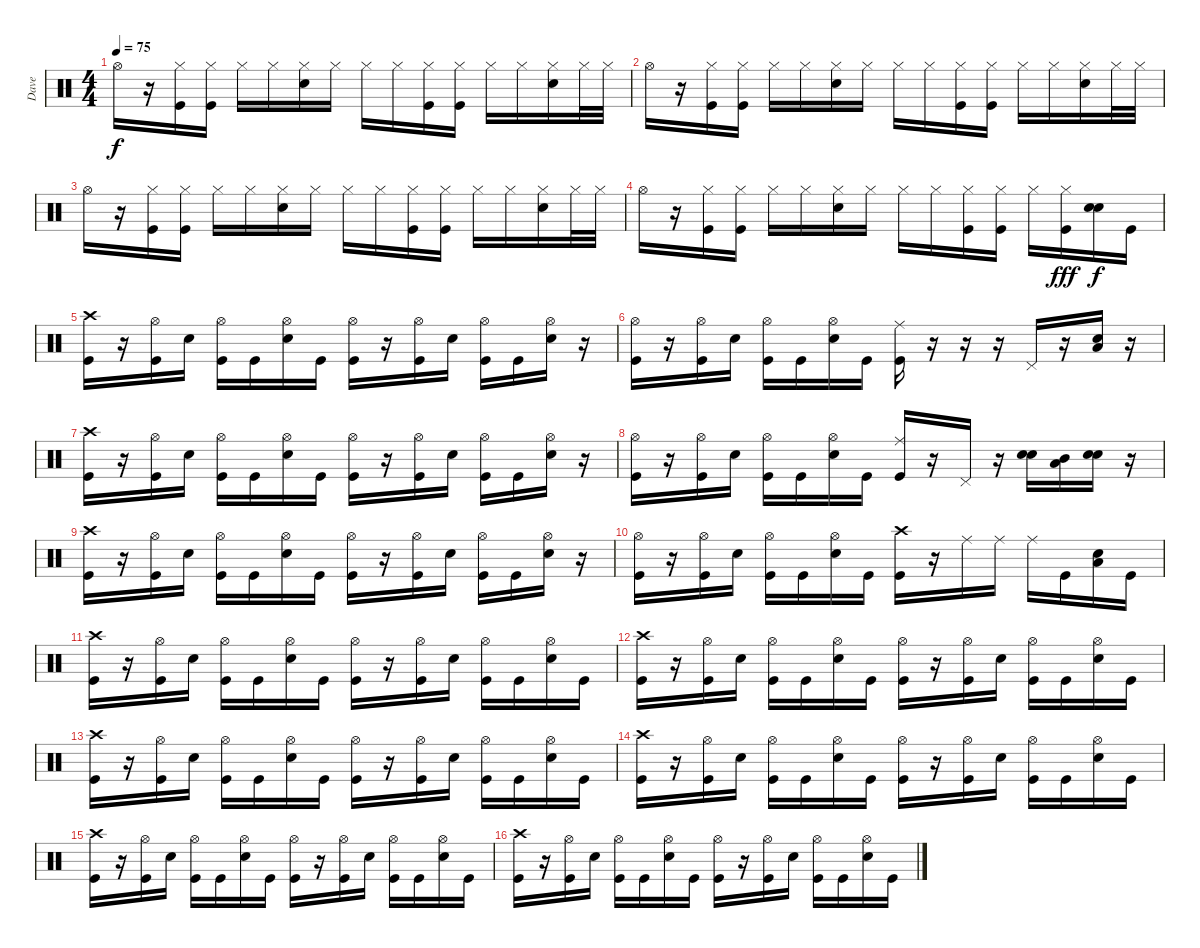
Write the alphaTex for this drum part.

\track ("Dave" "Dave") {instrument percussion}
\staff {score}
\articulation defaults
\ts (4 4)
\tempo 75
\clef neutral
\ks c "Hi-Hat (open)".16{dy f}
r.16 ("Hi-Hat (closed)" "Kick (hit)").16 ("Hi-Hat (closed)" "Kick (hit)").16 "Hi-Hat (closed)".16 "Hi-Hat (closed)".16 ("Hi-Hat (closed)" "Snare (hit) 2").16 "Hi-Hat (closed)".16 "Hi-Hat (closed)".16 "Hi-Hat (closed)".16 ("Hi-Hat (closed)" "Kick (hit)").16 ("Hi-Hat (closed)" "Kick (hit)").16 "Hi-Hat (closed)".16 "Hi-Hat (closed)".16 ("Hi-Hat (closed)" "Snare (hit) 2").16 "Hi-Hat (closed)".32 "Hi-Hat (closed)".32 |
"Hi-Hat (open)".16 r.16 ("Hi-Hat (closed)" "Kick (hit)").16 ("Hi-Hat (closed)" "Kick (hit)").16 "Hi-Hat (closed)".16 "Hi-Hat (closed)".16 ("Hi-Hat (closed)" "Snare (hit) 2").16 "Hi-Hat (closed)".16 "Hi-Hat (closed)".16 "Hi-Hat (closed)".16 ("Hi-Hat (closed)" "Kick (hit)").16 ("Hi-Hat (closed)" "Kick (hit)").16 "Hi-Hat (closed)".16 "Hi-Hat (closed)".16 ("Hi-Hat (closed)" "Snare (hit) 2").16 "Hi-Hat (closed)".32 "Hi-Hat (closed)".32 |
"Hi-Hat (open)".16 r.16 ("Hi-Hat (closed)" "Kick (hit)").16 ("Hi-Hat (closed)" "Kick (hit)").16 "Hi-Hat (closed)".16 "Hi-Hat (closed)".16 ("Hi-Hat (closed)" "Snare (hit) 2").16 "Hi-Hat (closed)".16 "Hi-Hat (closed)".16 "Hi-Hat (closed)".16 ("Hi-Hat (closed)" "Kick (hit)").16 ("Hi-Hat (closed)" "Kick (hit)").16 "Hi-Hat (closed)".16 "Hi-Hat (closed)".16 ("Hi-Hat (closed)" "Snare (hit) 2").16 "Hi-Hat (closed)".32 "Hi-Hat (closed)".32 |
"Hi-Hat (open)".16 r.16 ("Hi-Hat (closed)" "Kick (hit)").16 ("Hi-Hat (closed)" "Kick (hit)").16 "Hi-Hat (closed)".16 "Hi-Hat (closed)".16 ("Hi-Hat (closed)" "Snare (hit) 2").16 "Hi-Hat (closed)".16 "Hi-Hat (closed)".16 "Hi-Hat (closed)".16 ("Hi-Hat (closed)" "Kick (hit)").16 ("Hi-Hat (closed)" "Kick (hit)").16 "Hi-Hat (closed)".16 ("Hi-Hat (closed)" "Kick (hit)").16{dy fff} ("Snare (hit) 2" "Snare (hit) 2").16{dy f} "Kick (hit)".16 |
("Crash high (hit)" "Kick (hit)").16 r.16 ("Hi-Hat (open)" "Kick (hit)").16 "Snare (hit) 2".16 ("Hi-Hat (open)" "Kick (hit)").16 "Kick (hit)".16 ("Hi-Hat (open)" "Snare (hit) 2").16 "Kick (hit)".16 ("Hi-Hat (open)" "Kick (hit)").16 r.16 ("Hi-Hat (open)" "Kick (hit)").16 "Snare (hit) 2".16 ("Hi-Hat (open)" "Kick (hit)").16 "Kick (hit)".16 ("Hi-Hat (open)" "Snare (hit) 2").16 r.16 |
("Hi-Hat (open)" "Kick (hit)").16 r.16 ("Hi-Hat (open)" "Kick (hit)").16 "Snare (hit) 2".16 ("Hi-Hat (open)" "Kick (hit)").16 "Kick (hit)".16 ("Hi-Hat (open)" "Snare (hit) 2").16 "Kick (hit)".16 ("Ride (middle)" "Kick (hit)").16 r.16 r.16 r.16 "Pedal Hi-Hat (hit)".16 r.16 ("Snare (hit) 2" "Low Floor Tom (hit)").16 r.16 |
("Crash high (hit)" "Kick (hit)").16 r.16 ("Hi-Hat (open)" "Kick (hit)").16 "Snare (hit) 2".16 ("Hi-Hat (open)" "Kick (hit)").16 "Kick (hit)".16 ("Hi-Hat (open)" "Snare (hit) 2").16 "Kick (hit)".16 ("Hi-Hat (open)" "Kick (hit)").16 r.16 ("Hi-Hat (open)" "Kick (hit)").16 "Snare (hit) 2".16 ("Hi-Hat (open)" "Kick (hit)").16 "Kick (hit)".16 ("Hi-Hat (open)" "Snare (hit) 2").16 r.16 |
("Hi-Hat (open)" "Kick (hit)").16 r.16 ("Hi-Hat (open)" "Kick (hit)").16 "Snare (hit) 2".16 ("Hi-Hat (open)" "Kick (hit)").16 "Kick (hit)".16 ("Hi-Hat (open)" "Snare (hit) 2").16 "Kick (hit)".16 ("Ride (middle)" "Kick (hit)").16 r.16 "Pedal Hi-Hat (hit)".16 r.16 ("Snare (hit) 2" "Snare (hit) 2").16 ("Mid Tom (hit)" "Low Floor Tom (hit)").16 ("Snare (hit) 2" "Snare (hit) 2").16 r.16 |
("Crash high (hit)" "Kick (hit)").16 r.16 ("Hi-Hat (open)" "Kick (hit)").16 "Snare (hit) 2".16 ("Hi-Hat (open)" "Kick (hit)").16 "Kick (hit)".16 ("Hi-Hat (open)" "Snare (hit) 2").16 "Kick (hit)".16 ("Hi-Hat (open)" "Kick (hit)").16 r.16 ("Hi-Hat (open)" "Kick (hit)").16 "Snare (hit) 2".16 ("Hi-Hat (open)" "Kick (hit)").16 "Kick (hit)".16 ("Hi-Hat (open)" "Snare (hit) 2").16 r.16 |
("Hi-Hat (open)" "Kick (hit)").16 r.16 ("Hi-Hat (open)" "Kick (hit)").16 "Snare (hit) 2".16 ("Hi-Hat (open)" "Kick (hit)").16 "Kick (hit)".16 ("Hi-Hat (open)" "Snare (hit) 2").16 "Kick (hit)".16 ("Crash high (hit)" "Kick (hit)").16 r.16 "Ride (middle)".16 "Ride (middle)".16 "Ride (middle)".16 "Kick (hit)".16 ("Snare (hit) 2" "Low Floor Tom (hit)").16 "Kick (hit)".16 |
("Crash high (hit)" "Kick (hit)").16 r.16 ("Hi-Hat (open)" "Kick (hit)").16 "Snare (hit) 2".16 ("Hi-Hat (open)" "Kick (hit)").16 "Kick (hit)".16 ("Hi-Hat (open)" "Snare (hit) 2").16 "Kick (hit)".16 ("Hi-Hat (open)" "Kick (hit)").16 r.16 ("Hi-Hat (open)" "Kick (hit)").16 "Snare (hit) 2".16 ("Hi-Hat (open)" "Kick (hit)").16 "Kick (hit)".16 ("Hi-Hat (open)" "Snare (hit) 2").16 "Kick (hit)".16 |
("Crash high (hit)" "Kick (hit)").16 r.16 ("Hi-Hat (open)" "Kick (hit)").16 "Snare (hit) 2".16 ("Hi-Hat (open)" "Kick (hit)").16 "Kick (hit)".16 ("Hi-Hat (open)" "Snare (hit) 2").16 "Kick (hit)".16 ("Hi-Hat (open)" "Kick (hit)").16 r.16 ("Hi-Hat (open)" "Kick (hit)").16 "Snare (hit) 2".16 ("Hi-Hat (open)" "Kick (hit)").16 "Kick (hit)".16 ("Hi-Hat (open)" "Snare (hit) 2").16 "Kick (hit)".16 |
("Crash high (hit)" "Kick (hit)").16 r.16 ("Hi-Hat (open)" "Kick (hit)").16 "Snare (hit) 2".16 ("Hi-Hat (open)" "Kick (hit)").16 "Kick (hit)".16 ("Hi-Hat (open)" "Snare (hit) 2").16 "Kick (hit)".16 ("Hi-Hat (open)" "Kick (hit)").16 r.16 ("Hi-Hat (open)" "Kick (hit)").16 "Snare (hit) 2".16 ("Hi-Hat (open)" "Kick (hit)").16 "Kick (hit)".16 ("Hi-Hat (open)" "Snare (hit) 2").16 "Kick (hit)".16 |
("Crash high (hit)" "Kick (hit)").16 r.16 ("Hi-Hat (open)" "Kick (hit)").16 "Snare (hit) 2".16 ("Hi-Hat (open)" "Kick (hit)").16 "Kick (hit)".16 ("Hi-Hat (open)" "Snare (hit) 2").16 "Kick (hit)".16 ("Hi-Hat (open)" "Kick (hit)").16 r.16 ("Hi-Hat (open)" "Kick (hit)").16 "Snare (hit) 2".16 ("Hi-Hat (open)" "Kick (hit)").16 "Kick (hit)".16 ("Hi-Hat (open)" "Snare (hit) 2").16 "Kick (hit)".16 |
("Crash high (hit)" "Kick (hit)").16 r.16 ("Hi-Hat (open)" "Kick (hit)").16 "Snare (hit) 2".16 ("Hi-Hat (open)" "Kick (hit)").16 "Kick (hit)".16 ("Hi-Hat (open)" "Snare (hit) 2").16 "Kick (hit)".16 ("Hi-Hat (open)" "Kick (hit)").16 r.16 ("Hi-Hat (open)" "Kick (hit)").16 "Snare (hit) 2".16 ("Hi-Hat (open)" "Kick (hit)").16 "Kick (hit)".16 ("Hi-Hat (open)" "Snare (hit) 2").16 "Kick (hit)".16 |
("Crash high (hit)" "Kick (hit)").16 r.16 ("Hi-Hat (open)" "Kick (hit)").16 "Snare (hit) 2".16 ("Hi-Hat (open)" "Kick (hit)").16 "Kick (hit)".16 ("Hi-Hat (open)" "Snare (hit) 2").16 "Kick (hit)".16 ("Hi-Hat (open)" "Kick (hit)").16 r.16 ("Hi-Hat (open)" "Kick (hit)").16 "Snare (hit) 2".16 ("Hi-Hat (open)" "Kick (hit)").16 "Kick (hit)".16 ("Hi-Hat (open)" "Snare (hit) 2").16 "Kick (hit)".16
